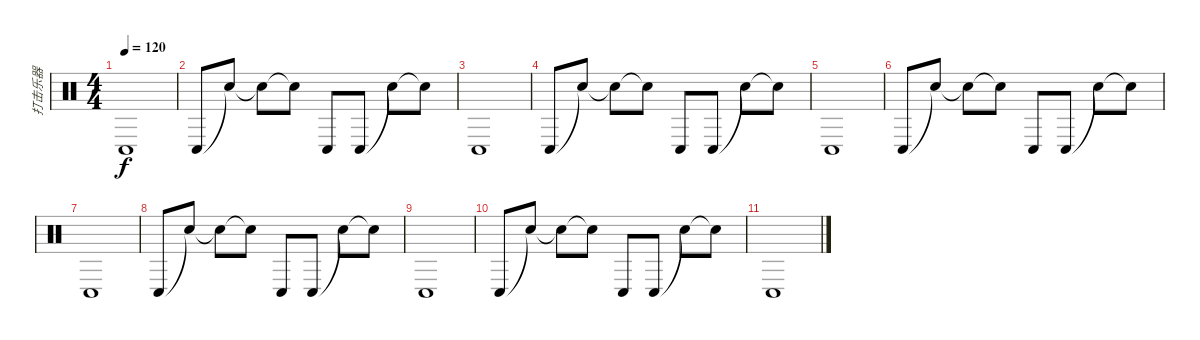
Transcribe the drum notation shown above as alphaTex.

\track ("打击乐器" "打击乐器") {instrument percussion}
\staff {score}
\articulation defaults
\ts (4 4)
\tempo 120
\clef neutral
\ks c "Conga low (hit)".1{dy f}
|
"Conga low (hit)".8 "Snare (hit)"{t}.8 "Snare (hit)"{t}.8 "Snare (hit)"{t}.8 "Conga low (hit)".8 "Conga low (hit)".8 "Snare (hit)"{t}.8 "Snare (hit)"{t}.8 |
"Conga low (hit)".1 |
"Conga low (hit)".8 "Snare (hit)"{t}.8 "Snare (hit)"{t}.8 "Snare (hit)"{t}.8 "Conga low (hit)".8 "Conga low (hit)".8 "Snare (hit)"{t}.8 "Snare (hit)"{t}.8 |
"Conga low (hit)".1 |
"Conga low (hit)".8 "Snare (hit)"{t}.8 "Snare (hit)"{t}.8 "Snare (hit)"{t}.8 "Conga low (hit)".8 "Conga low (hit)".8 "Snare (hit)"{t}.8 "Snare (hit)"{t}.8 |
"Conga low (hit)".1 |
"Conga low (hit)".8 "Snare (hit)"{t}.8 "Snare (hit)"{t}.8 "Snare (hit)"{t}.8 "Conga low (hit)".8 "Conga low (hit)".8 "Snare (hit)"{t}.8 "Snare (hit)"{t}.8 |
"Conga low (hit)".1 |
"Conga low (hit)".8 "Snare (hit)"{t}.8 "Snare (hit)"{t}.8 "Snare (hit)"{t}.8 "Conga low (hit)".8 "Conga low (hit)".8 "Snare (hit)"{t}.8 "Snare (hit)"{t}.8 |
"Conga low (hit)".1
